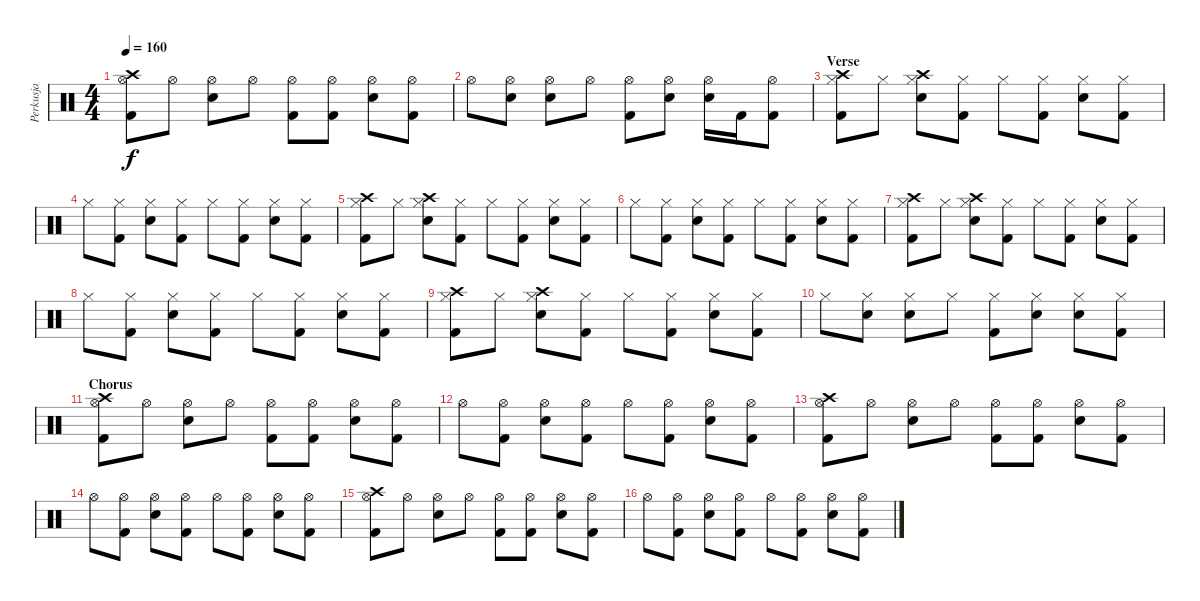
\track ("Perkusja" "Perkusja") {instrument percussion}
\staff {score}
\articulation defaults
\ts (4 4)
\tempo 160
\clef neutral
\ks c
("Hi-Hat (open)" "Kick (hit) 2" "Crash high (hit)").8{dy f} "Hi-Hat (open)".8 ("Hi-Hat (open)" "Snare (hit) 2").8 "Hi-Hat (open)".8 ("Hi-Hat (open)" "Kick (hit) 2").8 ("Hi-Hat (open)" "Kick (hit) 2").8 ("Hi-Hat (open)" "Snare (hit) 2").8 ("Hi-Hat (open)" "Kick (hit) 2").8 |
"Hi-Hat (open)".8 ("Hi-Hat (open)" "Snare (hit) 2").8 ("Hi-Hat (open)" "Snare (hit) 2").8 "Hi-Hat (open)".8 ("Hi-Hat (open)" "Kick (hit) 2").8 ("Hi-Hat (open)" "Snare (hit) 2").8 ("Hi-Hat (open)" "Snare (hit) 2").16 "Kick (hit) 2".16 ("Hi-Hat (open)" "Kick (hit) 2").8 |
\section ("" "Verse")
("Hi-Hat (closed)" "Crash high (hit)" "Kick (hit) 2").8 "Hi-Hat (closed)".8 ("Hi-Hat (closed)" "Crash high (hit)" "Snare (hit) 2").8 ("Hi-Hat (closed)" "Kick (hit) 2").8 "Hi-Hat (closed)".8 ("Hi-Hat (closed)" "Kick (hit) 2").8 ("Hi-Hat (closed)" "Snare (hit) 2").8 ("Hi-Hat (closed)" "Kick (hit) 2").8 |
"Hi-Hat (closed)".8 ("Hi-Hat (closed)" "Kick (hit) 2").8 ("Hi-Hat (closed)" "Snare (hit) 2").8 ("Hi-Hat (closed)" "Kick (hit) 2").8 "Hi-Hat (closed)".8 ("Hi-Hat (closed)" "Kick (hit) 2").8 ("Hi-Hat (closed)" "Snare (hit) 2").8 ("Hi-Hat (closed)" "Kick (hit) 2").8 |
("Hi-Hat (closed)" "Crash high (hit)" "Kick (hit) 2").8 "Hi-Hat (closed)".8 ("Hi-Hat (closed)" "Crash high (hit)" "Snare (hit) 2").8 ("Hi-Hat (closed)" "Kick (hit) 2").8 "Hi-Hat (closed)".8 ("Hi-Hat (closed)" "Kick (hit) 2").8 ("Hi-Hat (closed)" "Snare (hit) 2").8 ("Hi-Hat (closed)" "Kick (hit) 2").8 |
"Hi-Hat (closed)".8 ("Hi-Hat (closed)" "Kick (hit) 2").8 ("Hi-Hat (closed)" "Snare (hit) 2").8 ("Hi-Hat (closed)" "Kick (hit) 2").8 "Hi-Hat (closed)".8 ("Hi-Hat (closed)" "Kick (hit) 2").8 ("Hi-Hat (closed)" "Snare (hit) 2").8 ("Hi-Hat (closed)" "Kick (hit) 2").8 |
("Hi-Hat (closed)" "Crash high (hit)" "Kick (hit) 2").8 "Hi-Hat (closed)".8 ("Hi-Hat (closed)" "Crash high (hit)" "Snare (hit) 2").8 ("Hi-Hat (closed)" "Kick (hit) 2").8 "Hi-Hat (closed)".8 ("Hi-Hat (closed)" "Kick (hit) 2").8 ("Hi-Hat (closed)" "Snare (hit) 2").8 ("Hi-Hat (closed)" "Kick (hit) 2").8 |
"Hi-Hat (closed)".8 ("Hi-Hat (closed)" "Kick (hit) 2").8 ("Hi-Hat (closed)" "Snare (hit) 2").8 ("Hi-Hat (closed)" "Kick (hit) 2").8 "Hi-Hat (closed)".8 ("Hi-Hat (closed)" "Kick (hit) 2").8 ("Hi-Hat (closed)" "Snare (hit) 2").8 ("Hi-Hat (closed)" "Kick (hit) 2").8 |
("Hi-Hat (closed)" "Crash high (hit)" "Kick (hit) 2").8 "Hi-Hat (closed)".8 ("Hi-Hat (closed)" "Crash high (hit)" "Snare (hit) 2").8 ("Hi-Hat (closed)" "Kick (hit) 2").8 "Hi-Hat (closed)".8 ("Hi-Hat (closed)" "Kick (hit) 2").8 ("Hi-Hat (closed)" "Snare (hit) 2").8 ("Hi-Hat (closed)" "Kick (hit) 2").8 |
"Hi-Hat (closed)".8 ("Hi-Hat (closed)" "Snare (hit) 2").8 ("Hi-Hat (closed)" "Snare (hit) 2").8 "Hi-Hat (closed)".8 ("Hi-Hat (closed)" "Kick (hit) 2").8 ("Hi-Hat (closed)" "Snare (hit) 2").8 ("Hi-Hat (closed)" "Snare (hit) 2").8 ("Hi-Hat (closed)" "Kick (hit) 2").8 |
\section ("" "Chorus")
("Hi-Hat (open)" "Kick (hit) 2" "Crash high (hit)").8 "Hi-Hat (open)".8 ("Hi-Hat (open)" "Snare (hit) 2").8 "Hi-Hat (open)".8 ("Hi-Hat (open)" "Kick (hit) 2").8 ("Hi-Hat (open)" "Kick (hit) 2").8 ("Hi-Hat (open)" "Snare (hit) 2").8 ("Hi-Hat (open)" "Kick (hit) 2").8 |
"Hi-Hat (open)".8 ("Hi-Hat (open)" "Kick (hit) 2").8 ("Hi-Hat (open)" "Snare (hit) 2").8 ("Hi-Hat (open)" "Kick (hit) 2").8 "Hi-Hat (open)".8 ("Hi-Hat (open)" "Kick (hit) 2").8 ("Hi-Hat (open)" "Snare (hit) 2").8 ("Hi-Hat (open)" "Kick (hit) 2").8 |
("Hi-Hat (open)" "Kick (hit) 2" "Crash high (hit)").8 "Hi-Hat (open)".8 ("Hi-Hat (open)" "Snare (hit) 2").8 "Hi-Hat (open)".8 ("Hi-Hat (open)" "Kick (hit) 2").8 ("Hi-Hat (open)" "Kick (hit) 2").8 ("Hi-Hat (open)" "Snare (hit) 2").8 ("Hi-Hat (open)" "Kick (hit) 2").8 |
"Hi-Hat (open)".8 ("Hi-Hat (open)" "Kick (hit) 2").8 ("Hi-Hat (open)" "Snare (hit) 2").8 ("Hi-Hat (open)" "Kick (hit) 2").8 "Hi-Hat (open)".8 ("Hi-Hat (open)" "Kick (hit) 2").8 ("Hi-Hat (open)" "Snare (hit) 2").8 ("Hi-Hat (open)" "Kick (hit) 2").8 |
("Hi-Hat (open)" "Kick (hit) 2" "Crash high (hit)").8 "Hi-Hat (open)".8 ("Hi-Hat (open)" "Snare (hit) 2").8 "Hi-Hat (open)".8 ("Hi-Hat (open)" "Kick (hit) 2").8 ("Hi-Hat (open)" "Kick (hit) 2").8 ("Hi-Hat (open)" "Snare (hit) 2").8 ("Hi-Hat (open)" "Kick (hit) 2").8 |
"Hi-Hat (open)".8 ("Hi-Hat (open)" "Kick (hit) 2").8 ("Hi-Hat (open)" "Snare (hit) 2").8 ("Hi-Hat (open)" "Kick (hit) 2").8 "Hi-Hat (open)".8 ("Hi-Hat (open)" "Kick (hit) 2").8 ("Hi-Hat (open)" "Snare (hit) 2").8 ("Hi-Hat (open)" "Kick (hit) 2").8
